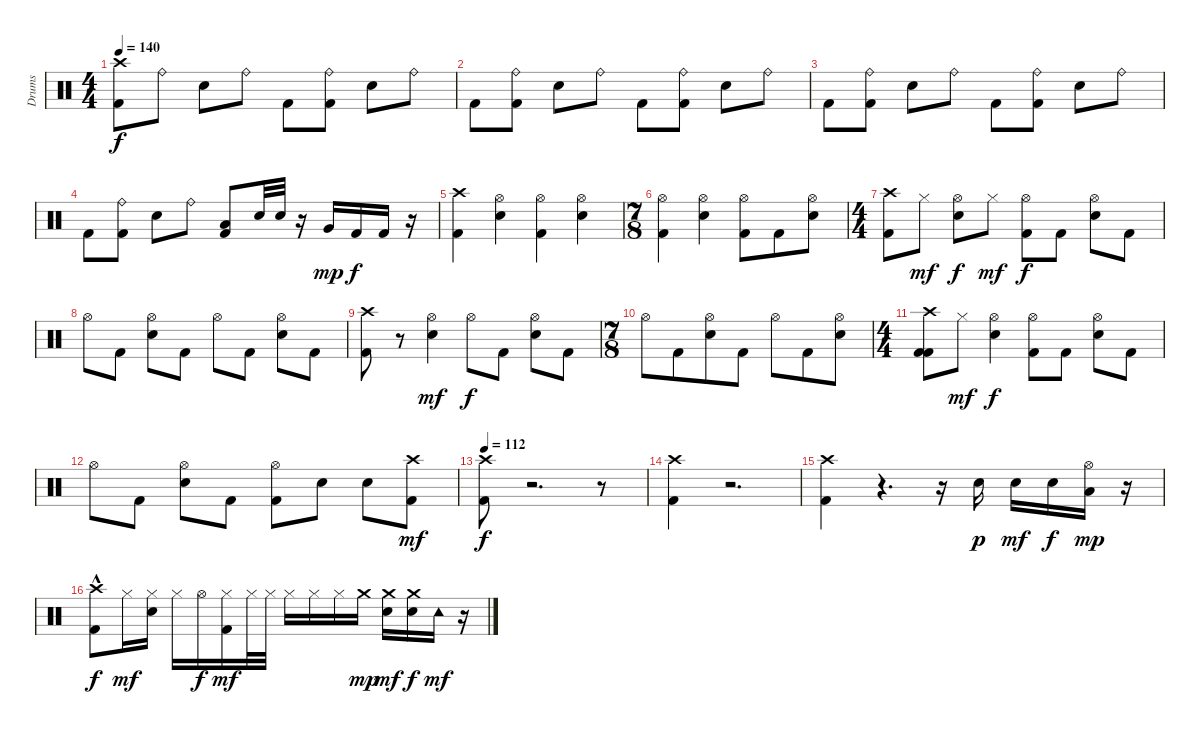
\track ("Drums" "Drums") {instrument percussion}
\staff {score}
\articulation defaults
\ts (4 4)
\tempo 140
\clef neutral
\ks c
("Kick (hit) 2" "Crash high (hit)").8{dy f} "Ride (bell)".8 "Electric Snare (hit)".8 "Ride (bell)".8 "Kick (hit) 2".8 ("Ride (bell)" "Kick (hit) 2").8 "Electric Snare (hit)".8 "Ride (bell)".8 |
"Kick (hit) 2".8 ("Ride (bell)" "Kick (hit) 2").8 "Electric Snare (hit)".8 "Ride (bell)".8 "Kick (hit) 2".8 ("Ride (bell)" "Kick (hit) 2").8 "Electric Snare (hit)".8 "Ride (bell)".8 |
"Kick (hit) 2".8 ("Kick (hit) 2" "Ride (bell)").8 "Electric Snare (hit)".8 "Ride (bell)".8 "Kick (hit) 2".8 ("Ride (bell)" "Kick (hit) 2").8 "Electric Snare (hit)".8 "Ride (bell)".8 |
"Kick (hit) 2".8 ("Kick (hit) 2" "Ride (bell)").8 "Electric Snare (hit)".8 "Ride (bell)".8 ("Low Tom (hit)" "Kick (hit) 2").8 "Electric Snare (hit)".32 "Electric Snare (hit)".32 r.16 "Very Low Tom (hit)".16{dy mp} "Kick (hit) 2".16{dy f} "Kick (hit) 2".16 r.16 |
("Crash high (hit)" "Kick (hit) 2").4 ("Electric Snare (hit)" "Hi-Hat (open)").4 ("Kick (hit) 2" "Hi-Hat (open)").4 ("Electric Snare (hit)" "Hi-Hat (open)").4 |
\ts (7 8)
("Kick (hit) 2" "Hi-Hat (open)").4 ("Electric Snare (hit)" "Hi-Hat (open)").4 ("Hi-Hat (open)" "Kick (hit) 2").8 "Kick (hit) 2".8 ("Electric Snare (hit)" "Hi-Hat (open)").8 |
\ts (4 4)
("Kick (hit) 2" "Crash high (hit)").8 "Hi-Hat (closed)".8{dy mf} ("Electric Snare (hit)" "Hi-Hat (open)").8{dy f} "Hi-Hat (closed)".8{dy mf} ("Kick (hit) 2" "Hi-Hat (open)").8{dy f} "Kick (hit) 2".8 ("Electric Snare (hit)" "Hi-Hat (open)").8 "Kick (hit) 2".8 |
"Hi-Hat (open)".8 "Kick (hit) 2".8 ("Hi-Hat (open)" "Electric Snare (hit)").8 "Kick (hit) 2".8 "Hi-Hat (open)".8 "Kick (hit) 2".8 ("Hi-Hat (open)" "Electric Snare (hit)").8 "Kick (hit) 2".8 |
("Crash high (hit)" "Kick (hit) 2").8 r.8 ("Electric Snare (hit)" "Hi-Hat (open)").4{dy mf} "Hi-Hat (open)".8{dy f} "Kick (hit) 2".8 ("Electric Snare (hit)" "Hi-Hat (open)").8 "Kick (hit) 2".8 |
\ts (7 8)
"Hi-Hat (open)".8 "Kick (hit) 2".8 ("Hi-Hat (open)" "Electric Snare (hit)").8 "Kick (hit) 2".8 "Hi-Hat (open)".8 "Kick (hit) 2".8 ("Electric Snare (hit)" "Hi-Hat (open)").8 |
\ts (4 4)
("Kick (hit) 2" "Crash high (hit)" "Kick (hit) 2").8 "Hi-Hat (closed)".8{dy mf} ("Electric Snare (hit)" "Hi-Hat (open)").4{dy f} ("Kick (hit) 2" "Hi-Hat (open)").8 "Kick (hit) 2".8 ("Electric Snare (hit)" "Hi-Hat (open)").8 "Kick (hit) 2".8 |
"Hi-Hat (open)".8 "Kick (hit) 2".8 ("Hi-Hat (open)" "Electric Snare (hit)").8 "Kick (hit) 2".8 ("Hi-Hat (open)" "Kick (hit) 2").8 "Electric Snare (hit)".8 "Electric Snare (hit)".8 ("Kick (hit) 2" "Crash high (hit)").8{dy mf} |
\tempo 112
("Crash high (hit)" "Kick (hit) 2").8{dy f} r.2{d} r.8 |
("Crash high (hit)" "Kick (hit) 2").4 r.2{d} |
("Crash high (hit)" "Kick (hit) 2").4 r.4{d} r.16 "Electric Snare (hit)".16{dy p} "Electric Snare (hit)".16{dy mf} "Electric Snare (hit)".16{dy f} ("Low Tom (hit)" "Hi-Hat (open)").16{dy mp} r.16 |
("Crash high (hit)" "Kick (hit) 2"{hac}).8{dy f} "Hi-Hat (closed)".16{dy mf} ("Electric Snare (hit)" "Hi-Hat (closed)").16 "Hi-Hat (closed)".16 "Hi-Hat (open)".16{dy f} ("Kick (hit) 2" "Hi-Hat (closed)").16{dy mf} "Hi-Hat (closed)".32 "Hi-Hat (closed)".32 "Hi-Hat (closed)".16 "Hi-Hat (closed)".16 "Hi-Hat (closed)".16 "Crash medium (hit)".16{dy mp} ("Electric Snare (hit)" "Crash medium (hit)").16{dy mf} ("Electric Snare (hit)" "Crash medium (hit)").16{dy f} "Tambourine (hit)".16{dy mf} r.16
